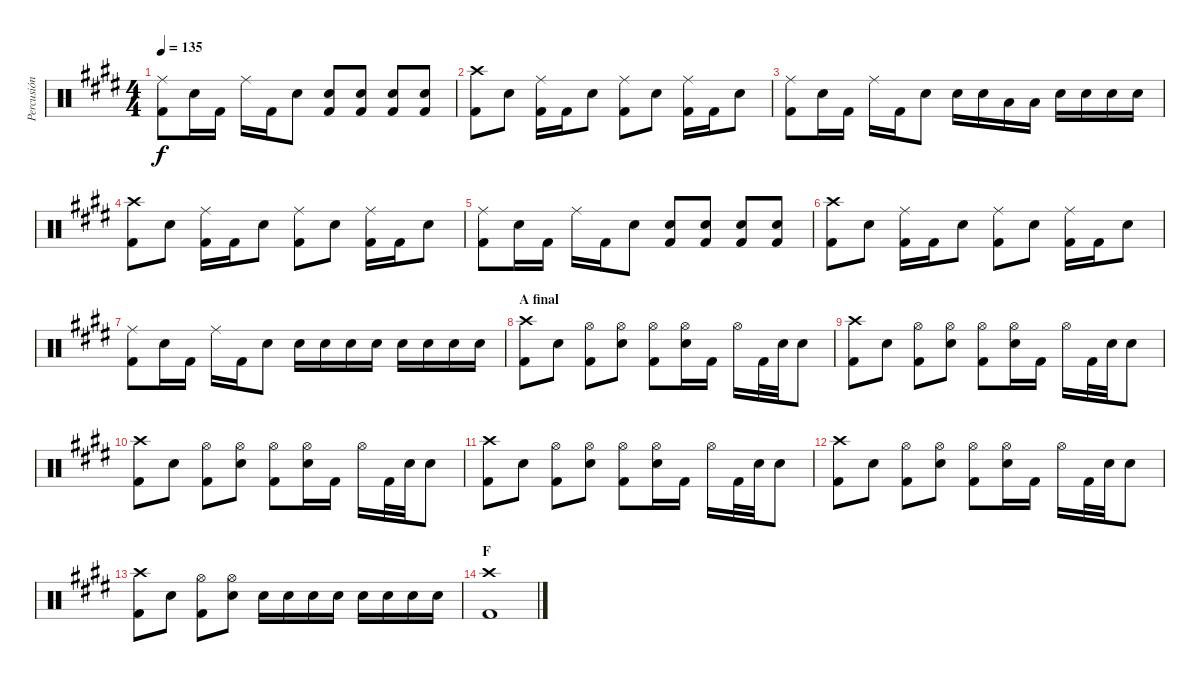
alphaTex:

\track ("Percusión" "Percusión") {instrument percussion}
\staff {score}
\articulation defaults
\ts (4 4)
\tempo 135
\clef neutral
\ks e
("Ride (middle)" "Kick (hit) 2").8{dy f} "Electric Snare (hit)".16 "Kick (hit) 2".16 "Ride (middle)".16 "Kick (hit) 2".16 "Electric Snare (hit)".8 ("Electric Snare (hit)" "Kick (hit) 2").8 ("Electric Snare (hit)" "Kick (hit) 2").8 ("Electric Snare (hit)" "Kick (hit) 2").8 ("Electric Snare (hit)" "Kick (hit) 2").8 |
("Crash high (hit)" "Kick (hit) 2").8 "Electric Snare (hit)".8 ("Ride (middle)" "Kick (hit) 2").16 "Kick (hit) 2".16 "Electric Snare (hit)".8 ("Ride (middle)" "Kick (hit) 2").8 "Electric Snare (hit)".8 ("Ride (middle)" "Kick (hit) 2").16 "Kick (hit) 2".16 "Electric Snare (hit)".8 |
("Ride (middle)" "Kick (hit) 2").8 "Electric Snare (hit)".16 "Kick (hit) 2".16 "Ride (middle)".16 "Kick (hit) 2".16 "Electric Snare (hit)".8 "Electric Snare (hit)".16 "Electric Snare (hit)".16 "Low Tom (hit)".16 "Low Tom (hit)".16 "Electric Snare (hit)".16 "Electric Snare (hit)".16 "Electric Snare (hit)".16 "Electric Snare (hit)".16 |
("Crash high (hit)" "Kick (hit) 2").8 "Electric Snare (hit)".8 ("Ride (middle)" "Kick (hit) 2").16 "Kick (hit) 2".16 "Electric Snare (hit)".8 ("Ride (middle)" "Kick (hit) 2").8 "Electric Snare (hit)".8 ("Ride (middle)" "Kick (hit) 2").16 "Kick (hit) 2".16 "Electric Snare (hit)".8 |
("Ride (middle)" "Kick (hit) 2").8 "Electric Snare (hit)".16 "Kick (hit) 2".16 "Ride (middle)".16 "Kick (hit) 2".16 "Electric Snare (hit)".8 ("Electric Snare (hit)" "Kick (hit) 2").8 ("Electric Snare (hit)" "Kick (hit) 2").8 ("Electric Snare (hit)" "Kick (hit) 2").8 ("Electric Snare (hit)" "Kick (hit) 2").8 |
("Crash high (hit)" "Kick (hit) 2").8 "Electric Snare (hit)".8 ("Ride (middle)" "Kick (hit) 2").16 "Kick (hit) 2".16 "Electric Snare (hit)".8 ("Ride (middle)" "Kick (hit) 2").8 "Electric Snare (hit)".8 ("Ride (middle)" "Kick (hit) 2").16 "Kick (hit) 2".16 "Electric Snare (hit)".8 |
("Ride (middle)" "Kick (hit) 2").8 "Electric Snare (hit)".16 "Kick (hit) 2".16 "Ride (middle)".16 "Kick (hit) 2".16 "Electric Snare (hit)".8 "Electric Snare (hit)".16 "Electric Snare (hit)".16 "Electric Snare (hit)".16 "Electric Snare (hit)".16 "Electric Snare (hit)".16 "Electric Snare (hit)".16 "Electric Snare (hit)".16 "Electric Snare (hit)".16 |
\section ("" "A final")
("Crash high (hit)" "Kick (hit) 2").8 "Electric Snare (hit)".8 ("Hi-Hat (open)" "Kick (hit) 2").8 ("Hi-Hat (open)" "Electric Snare (hit)").8 ("Hi-Hat (open)" "Kick (hit) 2").8 ("Hi-Hat (open)" "Electric Snare (hit)").16 "Kick (hit) 2".16 "Hi-Hat (open)".16 "Kick (hit) 2".32 "Electric Snare (hit)".32 "Electric Snare (hit)".8 |
("Crash high (hit)" "Kick (hit) 2").8 "Electric Snare (hit)".8 ("Hi-Hat (open)" "Kick (hit) 2").8 ("Hi-Hat (open)" "Electric Snare (hit)").8 ("Hi-Hat (open)" "Kick (hit) 2").8 ("Hi-Hat (open)" "Electric Snare (hit)").16 "Kick (hit) 2".16 "Hi-Hat (open)".16 "Kick (hit) 2".32 "Electric Snare (hit)".32 "Electric Snare (hit)".8 |
("Crash high (hit)" "Kick (hit) 2").8 "Electric Snare (hit)".8 ("Hi-Hat (open)" "Kick (hit) 2").8 ("Hi-Hat (open)" "Electric Snare (hit)").8 ("Hi-Hat (open)" "Kick (hit) 2").8 ("Hi-Hat (open)" "Electric Snare (hit)").16 "Kick (hit) 2".16 "Hi-Hat (open)".16 "Kick (hit) 2".32 "Electric Snare (hit)".32 "Electric Snare (hit)".8 |
("Crash high (hit)" "Kick (hit) 2").8 "Electric Snare (hit)".8 ("Hi-Hat (open)" "Kick (hit) 2").8 ("Hi-Hat (open)" "Electric Snare (hit)").8 ("Hi-Hat (open)" "Kick (hit) 2").8 ("Hi-Hat (open)" "Electric Snare (hit)").16 "Kick (hit) 2".16 "Hi-Hat (open)".16 "Kick (hit) 2".32 "Electric Snare (hit)".32 "Electric Snare (hit)".8 |
("Crash high (hit)" "Kick (hit) 2").8 "Electric Snare (hit)".8 ("Hi-Hat (open)" "Kick (hit) 2").8 ("Hi-Hat (open)" "Electric Snare (hit)").8 ("Hi-Hat (open)" "Kick (hit) 2").8 ("Hi-Hat (open)" "Electric Snare (hit)").16 "Kick (hit) 2".16 "Hi-Hat (open)".16 "Kick (hit) 2".32 "Electric Snare (hit)".32 "Electric Snare (hit)".8 |
("Crash high (hit)" "Kick (hit) 2").8 "Electric Snare (hit)".8 ("Hi-Hat (open)" "Kick (hit) 2").8 ("Hi-Hat (open)" "Electric Snare (hit)").8 "Electric Snare (hit)".16 "Electric Snare (hit)".16 "Electric Snare (hit)".16 "Electric Snare (hit)".16 "Electric Snare (hit)".16 "Electric Snare (hit)".16 "Electric Snare (hit)".16 "Electric Snare (hit)".16 |
\section ("" "F")
("Crash high (hit)" "Kick (hit) 2").1
